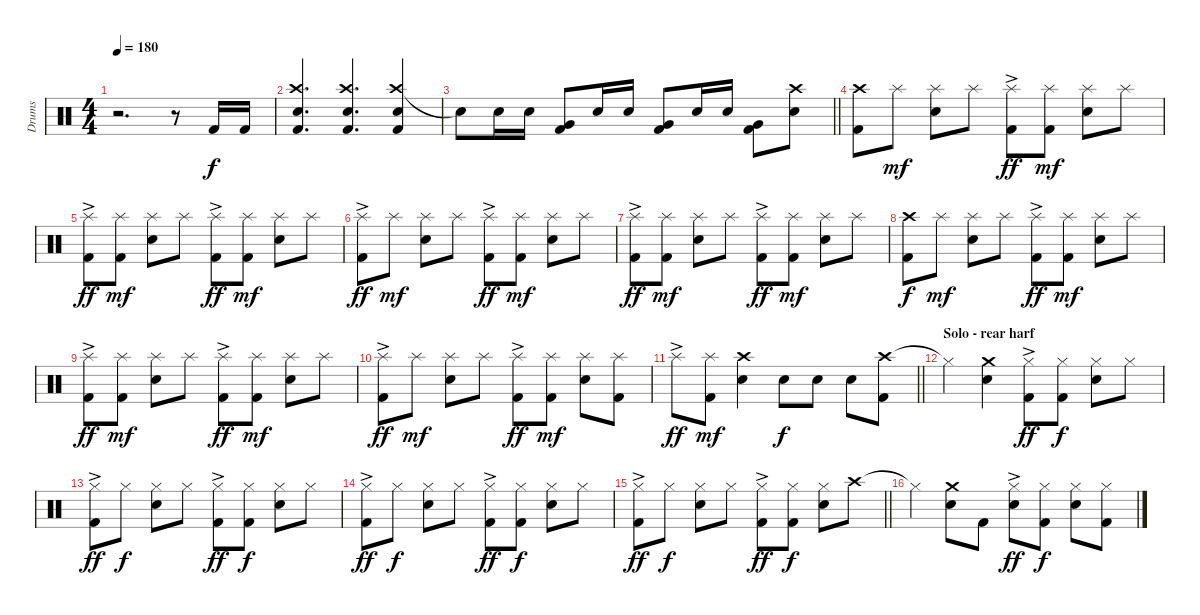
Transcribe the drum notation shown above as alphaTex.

\track ("Drums" "Drums") {instrument percussion}
\staff {score}
\articulation defaults
\ts (4 4)
\tempo 180
\clef neutral
\ks c
r.2{d dy f} r.8 "Kick (hit) 2".16 "Kick (hit) 2".16 |
("Crash high (hit)" "Snare (hit) 2" "Kick (hit) 2").4{d} ("Crash high (hit)" "Snare (hit) 2" "Kick (hit) 2").4{d} ("Crash high (hit)" "Snare (hit) 2" "Kick (hit) 2").4 |
\barLineRight lightlight "Snare (hit)"{t}.8 "Snare (hit) 2".16 "Snare (hit) 2".16
("Very Low Tom (hit)" "Kick (hit) 2").8 "Snare (hit) 2".16 "Snare (hit) 2".16 ("Very Low Tom (hit)" "Kick (hit) 2").8 "Snare (hit) 2".16 "Snare (hit) 2".16 ("Very Low Tom (hit)" "Kick (hit) 2").8 ("Crash high (hit)" "Snare (hit) 2").8 |
("Crash high (hit)" "Kick (hit) 2").8 "Splash (hit)".8{dy mf} ("Splash (hit)" "Snare (hit) 2").8 "Splash (hit)".8 ("Splash (hit)"{ac} "Kick (hit) 2").8{dy ff} ("Splash (hit)" "Kick (hit) 2").8{dy mf} ("Splash (hit)" "Snare (hit) 2").8 "Splash (hit)".8 |
("Splash (hit)"{ac} "Kick (hit) 2").8{dy ff} ("Splash (hit)" "Kick (hit) 2").8{dy mf} ("Splash (hit)" "Snare (hit) 2").8 "Splash (hit)".8 ("Splash (hit)"{ac} "Kick (hit) 2").8{dy ff} ("Splash (hit)" "Kick (hit) 2").8{dy mf} ("Splash (hit)" "Snare (hit) 2").8 "Splash (hit)".8 |
("Splash (hit)"{ac} "Kick (hit) 2").8{dy ff} "Splash (hit)".8{dy mf} ("Splash (hit)" "Snare (hit) 2").8 "Splash (hit)".8 ("Splash (hit)"{ac} "Kick (hit) 2").8{dy ff} ("Splash (hit)" "Kick (hit) 2").8{dy mf} ("Splash (hit)" "Snare (hit) 2").8 "Splash (hit)".8 |
("Splash (hit)"{ac} "Kick (hit) 2").8{dy ff} ("Splash (hit)" "Kick (hit) 2").8{dy mf} ("Splash (hit)" "Snare (hit) 2").8 "Splash (hit)".8 ("Splash (hit)"{ac} "Kick (hit) 2").8{dy ff} ("Splash (hit)" "Kick (hit) 2").8{dy mf} ("Splash (hit)" "Snare (hit) 2").8 "Splash (hit)".8 |
("Crash high (hit)" "Kick (hit) 2").8{dy f} "Splash (hit)".8{dy mf} ("Splash (hit)" "Snare (hit) 2").8 "Splash (hit)".8 ("Splash (hit)"{ac} "Kick (hit) 2").8{dy ff} ("Splash (hit)" "Kick (hit) 2").8{dy mf} ("Splash (hit)" "Snare (hit) 2").8 "Splash (hit)".8 |
("Splash (hit)"{ac} "Kick (hit) 2").8{dy ff} ("Splash (hit)" "Kick (hit) 2").8{dy mf} ("Splash (hit)" "Snare (hit) 2").8 "Splash (hit)".8 ("Splash (hit)"{ac} "Kick (hit) 2").8{dy ff} ("Splash (hit)" "Kick (hit) 2").8{dy mf} ("Splash (hit)" "Snare (hit) 2").8 "Splash (hit)".8 |
("Splash (hit)"{ac} "Kick (hit) 2").8{dy ff} "Splash (hit)".8{dy mf} ("Splash (hit)" "Snare (hit) 2").8 "Splash (hit)".8 ("Splash (hit)"{ac} "Kick (hit) 2").8{dy ff} ("Splash (hit)" "Kick (hit) 2").8{dy mf} ("Splash (hit)" "Snare (hit) 2").8 ("Splash (hit)" "Kick (hit) 2").8 |
\barLineRight lightlight "Splash (hit)"{ac}.8{dy ff}
("Splash (hit)" "Kick (hit) 2").8{dy mf} ("Crash high (hit)" "Snare (hit) 2").4 "Snare (hit) 2".8{dy f} "Snare (hit) 2".8 "Snare (hit) 2".8 ("Crash high (hit)" "Kick (hit) 2").8 |
\section ("" "Solo - rear harf")
"Hi-Hat (closed)"{t}.4 ("Crash medium (hit)" "Snare (hit) 2").4 ("Hi-Hat (closed)"{ac} "Kick (hit) 2").8{dy ff} ("Hi-Hat (closed)" "Kick (hit) 2").8{dy f} ("Hi-Hat (closed)" "Snare (hit) 2").8 "Hi-Hat (closed)".8 |
("Hi-Hat (closed)"{ac} "Kick (hit) 2").8{dy ff} "Hi-Hat (closed)".8{dy f} ("Hi-Hat (closed)" "Snare (hit) 2").8 "Hi-Hat (closed)".8 ("Hi-Hat (closed)"{ac} "Kick (hit) 2").8{dy ff} ("Hi-Hat (closed)" "Kick (hit) 2").8{dy f} ("Hi-Hat (closed)" "Snare (hit) 2").8 "Hi-Hat (closed)".8 |
("Hi-Hat (closed)"{ac} "Kick (hit) 2").8{dy ff} "Hi-Hat (closed)".8{dy f} ("Hi-Hat (closed)" "Snare (hit) 2").8 "Hi-Hat (closed)".8 ("Hi-Hat (closed)"{ac} "Kick (hit) 2").8{dy ff} ("Hi-Hat (closed)" "Kick (hit) 2").8{dy f} ("Hi-Hat (closed)" "Snare (hit) 2").8 "Hi-Hat (closed)".8 |
\barLineRight lightlight
("Hi-Hat (closed)"{ac} "Kick (hit) 2").8{dy ff} "Hi-Hat (closed)".8{dy f} ("Hi-Hat (closed)" "Snare (hit) 2").8 "Hi-Hat (closed)".8 ("Hi-Hat (closed)"{ac} "Kick (hit) 2").8{dy ff} ("Hi-Hat (closed)" "Kick (hit) 2").8{dy f} ("Hi-Hat (closed)" "Snare (hit) 2").8 "Crash high (hit)".8 |
"Hi-Hat (closed)"{t}.4 ("Crash medium (hit)" "Snare (hit) 2").8 "Kick (hit) 2".8 ("Hi-Hat (closed)"{ac} "Snare (hit) 2").8{dy ff} ("Hi-Hat (closed)" "Kick (hit) 2").8{dy f} ("Hi-Hat (closed)" "Snare (hit) 2").8 ("Hi-Hat (closed)" "Kick (hit) 2").8
